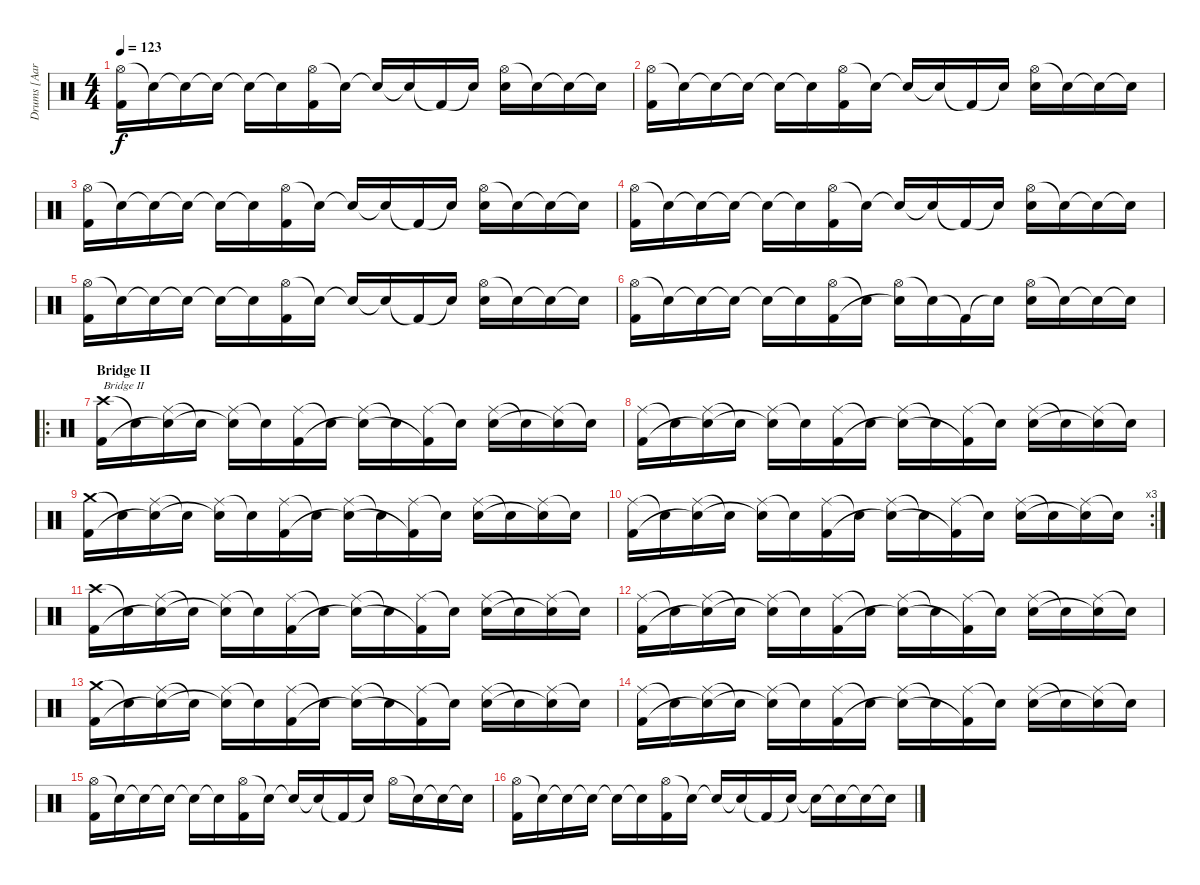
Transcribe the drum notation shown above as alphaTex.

\track ("Drums [Aaron Harris]" "Drums [Aar") {instrument percussion}
\staff {score}
\articulation defaults
\ts (4 4)
\tempo 123
\clef neutral
\ks c
("Hi-Hat (open)" "Kick (hit) 2").16{dy f} "Snare (hit)"{t}.16 "Snare (hit)"{t}.16 "Snare (hit)"{t}.16 "Snare (hit)"{t}.16 "Snare (hit)"{t}.16 ("Hi-Hat (open)" "Kick (hit) 2").16 "Snare (hit)"{t}.16 "Snare (hit)"{t}.16 "Snare (hit)"{t}.16 "Kick (hit) 2"{t}.16 "Snare (hit)"{t}.16 ("Hi-Hat (open)" "Electric Snare (hit)").16 "Snare (hit)"{t}.16 "Snare (hit)"{t}.16 "Snare (hit)"{t}.16 |
("Hi-Hat (open)" "Kick (hit) 2").16 "Snare (hit)"{t}.16 "Snare (hit)"{t}.16 "Snare (hit)"{t}.16 "Snare (hit)"{t}.16 "Snare (hit)"{t}.16 ("Hi-Hat (open)" "Kick (hit) 2").16 "Snare (hit)"{t}.16 "Snare (hit)"{t}.16 "Snare (hit)"{t}.16 "Kick (hit) 2"{t}.16 "Snare (hit)"{t}.16 ("Hi-Hat (open)" "Electric Snare (hit)").16 "Snare (hit)"{t}.16 "Snare (hit)"{t}.16 "Snare (hit)"{t}.16 |
("Hi-Hat (open)" "Kick (hit) 2").16 "Snare (hit)"{t}.16 "Snare (hit)"{t}.16 "Snare (hit)"{t}.16 "Snare (hit)"{t}.16 "Snare (hit)"{t}.16 ("Hi-Hat (open)" "Kick (hit) 2").16 "Snare (hit)"{t}.16 "Snare (hit)"{t}.16 "Snare (hit)"{t}.16 "Kick (hit) 2"{t}.16 "Snare (hit)"{t}.16 ("Hi-Hat (open)" "Electric Snare (hit)").16 "Snare (hit)"{t}.16 "Snare (hit)"{t}.16 "Snare (hit)"{t}.16 |
("Hi-Hat (open)" "Kick (hit) 2").16 "Snare (hit)"{t}.16 "Snare (hit)"{t}.16 "Snare (hit)"{t}.16 "Snare (hit)"{t}.16 "Snare (hit)"{t}.16 ("Hi-Hat (open)" "Kick (hit) 2").16 "Snare (hit)"{t}.16 "Snare (hit)"{t}.16 "Snare (hit)"{t}.16 "Kick (hit) 2"{t}.16 "Snare (hit)"{t}.16 ("Hi-Hat (open)" "Electric Snare (hit)").16 "Snare (hit)"{t}.16 "Snare (hit)"{t}.16 "Snare (hit)"{t}.16 |
("Hi-Hat (open)" "Kick (hit) 2").16 "Snare (hit)"{t}.16 "Snare (hit)"{t}.16 "Snare (hit)"{t}.16 "Snare (hit)"{t}.16 "Snare (hit)"{t}.16 ("Hi-Hat (open)" "Kick (hit) 2").16 "Snare (hit)"{t}.16 "Snare (hit)"{t}.16 "Snare (hit)"{t}.16 "Kick (hit) 2"{t}.16 "Snare (hit)"{t}.16 ("Hi-Hat (open)" "Electric Snare (hit)").16 "Snare (hit)"{t}.16 "Snare (hit)"{t}.16 "Snare (hit)"{t}.16 |
("Hi-Hat (open)" "Kick (hit) 2").16 "Snare (hit)"{t}.16 "Snare (hit)"{t}.16 "Snare (hit)"{t}.16 "Snare (hit)"{t}.16 "Snare (hit)"{t}.16 ("Hi-Hat (open)" "Kick (hit) 2").16 "Snare (hit)"{t}.16 ("Hi-Hat (open)" "Snare (hit)"{t}).16 "Snare (hit)"{t}.16 "Kick (hit) 2"{t}.16 "Snare (hit)"{t}.16 ("Hi-Hat (open)" "Electric Snare (hit)").16 "Snare (hit)"{t}.16 "Snare (hit)"{t}.16 "Snare (hit)"{t}.16 |
\ro
\section ("" "Bridge II")
("Crash high (hit)" "Kick (hit) 2").16{txt "Bridge II"} "Snare (hit)"{t}.16 ("Ride (middle)" "Snare (hit)"{t}).16 "Snare (hit)"{t}.16 ("Ride (middle)" "Snare (hit)"{t}).16 "Snare (hit)"{t}.16 ("Ride (middle)" "Kick (hit) 2").16 "Snare (hit)"{t}.16 ("Ride (middle)" "Snare (hit)"{t}).16 "Snare (hit)"{t}.16 ("Ride (middle)" "Kick (hit) 2"{t}).16 "Snare (hit)"{t}.16 ("Ride (middle)" "Electric Snare (hit)").16 "Snare (hit)"{t}.16 ("Ride (middle)" "Snare (hit)"{t}).16 "Snare (hit)"{t}.16 |
("Ride (middle)" "Kick (hit) 2").16 "Snare (hit)"{t}.16 ("Ride (middle)" "Snare (hit)"{t}).16 "Snare (hit)"{t}.16 ("Ride (middle)" "Snare (hit)"{t}).16 "Snare (hit)"{t}.16 ("Ride (middle)" "Kick (hit) 2").16 "Snare (hit)"{t}.16 ("Ride (middle)" "Snare (hit)"{t}).16 "Snare (hit)"{t}.16 ("Ride (middle)" "Kick (hit) 2"{t}).16 "Snare (hit)"{t}.16 ("Ride (middle)" "Electric Snare (hit)").16 "Snare (hit)"{t}.16 ("Ride (middle)" "Snare (hit)"{t}).16 "Snare (hit)"{t}.16 |
("Crash medium (hit)" "Kick (hit) 2").16 "Snare (hit)"{t}.16 ("Ride (middle)" "Snare (hit)"{t}).16 "Snare (hit)"{t}.16 ("Ride (middle)" "Snare (hit)"{t}).16 "Snare (hit)"{t}.16 ("Ride (middle)" "Kick (hit) 2").16 "Snare (hit)"{t}.16 ("Ride (middle)" "Snare (hit)"{t}).16 "Snare (hit)"{t}.16 ("Ride (middle)" "Kick (hit) 2"{t}).16 "Snare (hit)"{t}.16 ("Ride (middle)" "Electric Snare (hit)").16 "Snare (hit)"{t}.16 ("Ride (middle)" "Snare (hit)"{t}).16 "Snare (hit)"{t}.16 |
\rc 3
("Ride (middle)" "Kick (hit) 2").16 "Snare (hit)"{t}.16 ("Ride (middle)" "Snare (hit)"{t}).16 "Snare (hit)"{t}.16 ("Ride (middle)" "Snare (hit)"{t}).16 "Snare (hit)"{t}.16 ("Ride (middle)" "Kick (hit) 2").16 "Snare (hit)"{t}.16 ("Ride (middle)" "Snare (hit)"{t}).16 "Snare (hit)"{t}.16 ("Ride (middle)" "Kick (hit) 2"{t}).16 "Snare (hit)"{t}.16 ("Ride (middle)" "Electric Snare (hit)").16 "Snare (hit)"{t}.16 ("Ride (middle)" "Snare (hit)"{t}).16 "Snare (hit)"{t}.16 |
("Crash high (hit)" "Kick (hit) 2").16 "Snare (hit)"{t}.16 ("Ride (middle)" "Snare (hit)"{t}).16 "Snare (hit)"{t}.16 ("Ride (middle)" "Snare (hit)"{t}).16 "Snare (hit)"{t}.16 ("Ride (middle)" "Kick (hit) 2").16 "Snare (hit)"{t}.16 ("Ride (middle)" "Snare (hit)"{t}).16 "Snare (hit)"{t}.16 ("Ride (middle)" "Kick (hit) 2"{t}).16 "Snare (hit)"{t}.16 ("Ride (middle)" "Electric Snare (hit)").16 "Snare (hit)"{t}.16 ("Ride (middle)" "Snare (hit)"{t}).16 "Snare (hit)"{t}.16 |
("Ride (middle)" "Kick (hit) 2").16 "Snare (hit)"{t}.16 ("Ride (middle)" "Snare (hit)"{t}).16 "Snare (hit)"{t}.16 ("Ride (middle)" "Snare (hit)"{t}).16 "Snare (hit)"{t}.16 ("Ride (middle)" "Kick (hit) 2").16 "Snare (hit)"{t}.16 ("Ride (middle)" "Snare (hit)"{t}).16 "Snare (hit)"{t}.16 ("Ride (middle)" "Kick (hit) 2"{t}).16 "Snare (hit)"{t}.16 ("Ride (middle)" "Electric Snare (hit)").16 "Snare (hit)"{t}.16 ("Ride (middle)" "Snare (hit)"{t}).16 "Snare (hit)"{t}.16 |
("Crash medium (hit)" "Kick (hit) 2").16 "Snare (hit)"{t}.16 ("Ride (middle)" "Snare (hit)"{t}).16 "Snare (hit)"{t}.16 ("Ride (middle)" "Snare (hit)"{t}).16 "Snare (hit)"{t}.16 ("Ride (middle)" "Kick (hit) 2").16 "Snare (hit)"{t}.16 ("Ride (middle)" "Snare (hit)"{t}).16 "Snare (hit)"{t}.16 ("Ride (middle)" "Kick (hit) 2"{t}).16 "Snare (hit)"{t}.16 ("Ride (middle)" "Electric Snare (hit)").16 "Snare (hit)"{t}.16 ("Ride (middle)" "Snare (hit)"{t}).16 "Snare (hit)"{t}.16 |
("Ride (middle)" "Kick (hit) 2").16 "Snare (hit)"{t}.16 ("Ride (middle)" "Snare (hit)"{t}).16 "Snare (hit)"{t}.16 ("Ride (middle)" "Snare (hit)"{t}).16 "Snare (hit)"{t}.16 ("Ride (middle)" "Kick (hit) 2").16 "Snare (hit)"{t}.16 ("Ride (middle)" "Snare (hit)"{t}).16 "Snare (hit)"{t}.16 ("Ride (middle)" "Kick (hit) 2"{t}).16 "Snare (hit)"{t}.16 ("Ride (middle)" "Electric Snare (hit)").16 "Snare (hit)"{t}.16 ("Ride (middle)" "Snare (hit)"{t}).16 "Snare (hit)"{t}.16 |
("Hi-Hat (open)" "Kick (hit) 2").16 "Snare (hit)"{t}.16 "Snare (hit)"{t}.16 "Snare (hit)"{t}.16 "Snare (hit)"{t}.16 "Snare (hit)"{t}.16 ("Hi-Hat (open)" "Kick (hit) 2").16 "Snare (hit)"{t}.16 "Snare (hit)"{t}.16 "Snare (hit)"{t}.16 "Kick (hit) 2"{t}.16 "Snare (hit)"{t}.16 "Hi-Hat (open)".16 "Snare (hit)"{t}.16 "Snare (hit)"{t}.16 "Snare (hit)"{t}.16 |
("Hi-Hat (open)" "Kick (hit) 2").16 "Snare (hit)"{t}.16 "Snare (hit)"{t}.16 "Snare (hit)"{t}.16 "Snare (hit)"{t}.16 "Snare (hit)"{t}.16 ("Hi-Hat (open)" "Kick (hit) 2").16 "Snare (hit)"{t}.16 "Snare (hit)"{t}.16 "Snare (hit)"{t}.16 "Kick (hit) 2"{t}.16 "Snare (hit)"{t}.16 "Snare (hit)"{t}.16 "Snare (hit)"{t}.16 "Snare (hit)"{t}.16 "Snare (hit)"{t}.16
